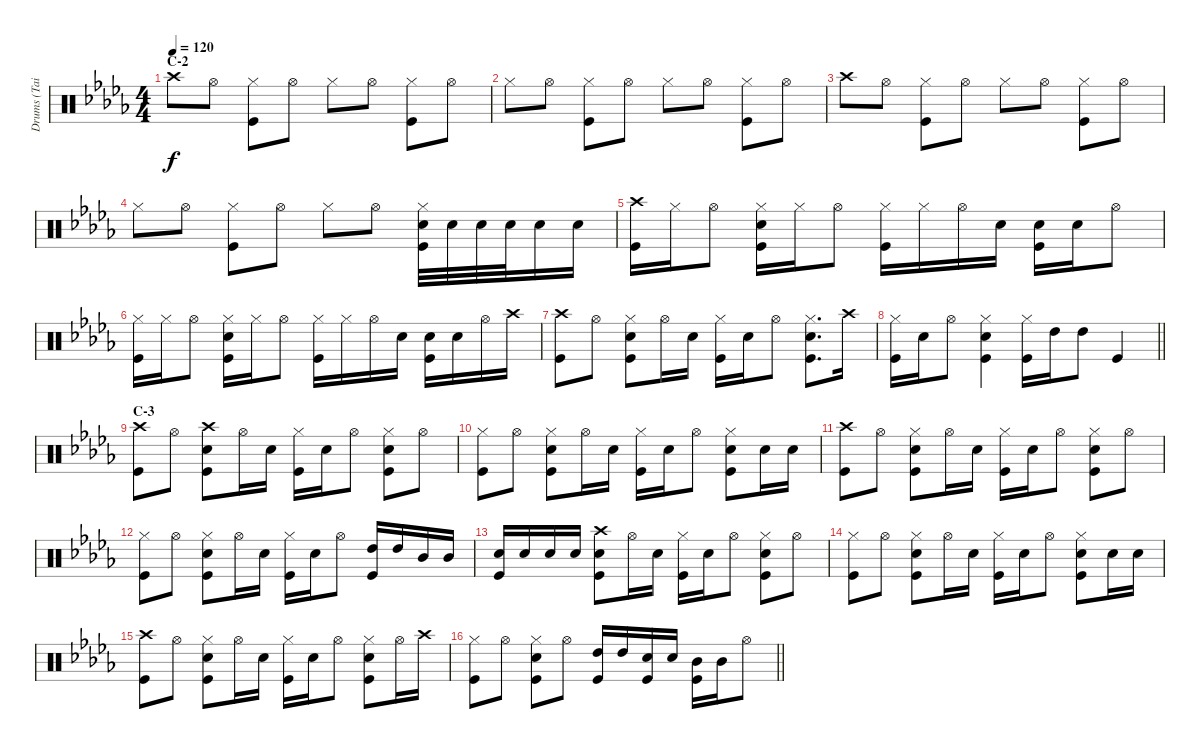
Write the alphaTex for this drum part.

\track ("Drums (Tainaka Ritsu)" "Drums (Tai") {instrument percussion}
\staff {score}
\articulation defaults
\ts (4 4)
\section ("" "C-2")
\tempo 120
\clef neutral
\ks db "Crash high (hit)".8{dy f} "Hi-Hat (open)".8
("Hi-Hat (closed)" "Kick (hit)").8 "Hi-Hat (open)".8 "Hi-Hat (closed)".8 "Hi-Hat (open)".8 ("Hi-Hat (closed)" "Kick (hit)").8 "Hi-Hat (open)".8 |
"Hi-Hat (closed)".8 "Hi-Hat (open)".8 ("Hi-Hat (closed)" "Kick (hit)").8 "Hi-Hat (open)".8 "Hi-Hat (closed)".8 "Hi-Hat (open)".8 ("Hi-Hat (closed)" "Kick (hit)").8 "Hi-Hat (open)".8 |
"Crash high (hit)".8 "Hi-Hat (open)".8 ("Hi-Hat (closed)" "Kick (hit)").8 "Hi-Hat (open)".8 "Hi-Hat (closed)".8 "Hi-Hat (open)".8 ("Hi-Hat (closed)" "Kick (hit)").8 "Hi-Hat (open)".8 |
"Hi-Hat (closed)".8 "Hi-Hat (open)".8 ("Hi-Hat (closed)" "Kick (hit)").8 "Hi-Hat (open)".8 "Hi-Hat (closed)".8 "Hi-Hat (open)".8 ("Hi-Hat (closed)" "Snare (hit) 2" "Kick (hit)").32 "Snare (hit) 2".32 "Snare (hit) 2".32 "Snare (hit) 2".32 "Snare (hit) 2".16 "Snare (hit) 2".16 |
("Crash high (hit)" "Kick (hit)").16 "Hi-Hat (closed)".16 "Hi-Hat (open)".8 ("Hi-Hat (closed)" "Snare (hit) 2" "Kick (hit)").16 "Hi-Hat (closed)".16 "Hi-Hat (open)".8 ("Hi-Hat (closed)" "Kick (hit)").16 "Hi-Hat (closed)".16 "Hi-Hat (open)".16 "Snare (hit) 2".16 ("Snare (hit) 2" "Kick (hit)").16 "Snare (hit) 2".16 "Hi-Hat (open)".8 |
("Hi-Hat (closed)" "Kick (hit)").16 "Hi-Hat (closed)".16 "Hi-Hat (open)".8 ("Hi-Hat (closed)" "Snare (hit) 2" "Kick (hit)").16 "Hi-Hat (closed)".16 "Hi-Hat (open)".8 ("Hi-Hat (closed)" "Kick (hit)").16 "Hi-Hat (closed)".16 "Hi-Hat (open)".16 "Snare (hit) 2".16 ("Snare (hit) 2" "Kick (hit)").16 "Snare (hit) 2".16 "Hi-Hat (open)".16 "Crash high (hit)".16 |
("Crash high (hit)" "Kick (hit)").8 "Hi-Hat (open)".8 ("Hi-Hat (closed)" "Snare (hit) 2" "Kick (hit)").8 "Hi-Hat (open)".16 "Snare (hit) 2".16 ("Hi-Hat (closed)" "Kick (hit)").16 "Snare (hit) 2".16 "Hi-Hat (open)".8 ("Hi-Hat (closed)" "Snare (hit) 2" "Kick (hit)").8{d} "Crash high (hit)".16 |
\barLineRight lightlight
("Hi-Hat (closed)" "Kick (hit)").16 "Snare (hit) 2".16 "Hi-Hat (open)".8 ("Hi-Hat (closed)" "Snare (hit) 2" "Kick (hit)").4 ("Hi-Hat (closed)" "Kick (hit)").16 "High Tom (hit)".16 "High Tom (hit)".8 "Kick (hit)".4 |
\section ("" "C-3")
("Crash high (hit)" "Kick (hit)").8 "Hi-Hat (open)".8 ("Crash high (hit)" "Snare (hit) 2" "Kick (hit)").8 "Hi-Hat (open)".16 "Snare (hit) 2".16 ("Hi-Hat (closed)" "Kick (hit)").16 "Snare (hit) 2".16 "Hi-Hat (open)".8 ("Hi-Hat (closed)" "Snare (hit) 2" "Kick (hit)").8 "Hi-Hat (open)".8 |
("Hi-Hat (closed)" "Kick (hit)").8 "Hi-Hat (open)".8 ("Hi-Hat (closed)" "Snare (hit) 2" "Kick (hit)").8 "Hi-Hat (open)".16 "Snare (hit) 2".16 ("Hi-Hat (closed)" "Kick (hit)").16 "Snare (hit) 2".16 "Hi-Hat (open)".8 ("Hi-Hat (closed)" "Snare (hit) 2" "Kick (hit)").8 "Snare (hit) 2".16 "Snare (hit) 2".16 |
("Crash high (hit)" "Kick (hit)").8 "Hi-Hat (open)".8 ("Hi-Hat (closed)" "Snare (hit) 2" "Kick (hit)").8 "Hi-Hat (open)".16 "Snare (hit) 2".16 ("Hi-Hat (closed)" "Kick (hit)").16 "Snare (hit) 2".16 "Hi-Hat (open)".8 ("Hi-Hat (closed)" "Snare (hit) 2" "Kick (hit)").8 "Hi-Hat (open)".8 |
("Hi-Hat (closed)" "Kick (hit)").8 "Hi-Hat (open)".8 ("Hi-Hat (closed)" "Snare (hit) 2" "Kick (hit)").8 "Hi-Hat (open)".16 "Snare (hit) 2".16 ("Hi-Hat (closed)" "Kick (hit)").16 "Snare (hit) 2".16 "Hi-Hat (open)".8 ("High Tom (hit)" "Kick (hit)").16 "High Tom (hit)".16 "Mid Tom (hit)".16 "Mid Tom (hit)".16 |
("Snare (hit) 2" "Kick (hit)").16 "Snare (hit) 2".16 "Snare (hit) 2".16 "Snare (hit) 2".16 ("Crash high (hit)" "Snare (hit) 2" "Kick (hit)").8 "Hi-Hat (open)".16 "Snare (hit) 2".16 ("Hi-Hat (closed)" "Kick (hit)").16 "Snare (hit) 2".16 "Hi-Hat (open)".8 ("Hi-Hat (closed)" "Snare (hit) 2" "Kick (hit)").8 "Hi-Hat (open)".8 |
("Hi-Hat (closed)" "Kick (hit)").8 "Hi-Hat (open)".8 ("Hi-Hat (closed)" "Snare (hit) 2" "Kick (hit)").8 "Hi-Hat (open)".16 "Snare (hit) 2".16 ("Hi-Hat (closed)" "Kick (hit)").16 "Snare (hit) 2".16 "Hi-Hat (open)".8 ("Hi-Hat (closed)" "Snare (hit) 2" "Kick (hit)").8 "Snare (hit) 2".16 "Snare (hit) 2".16 |
("Crash high (hit)" "Kick (hit)").8 "Hi-Hat (open)".8 ("Hi-Hat (closed)" "Snare (hit) 2" "Kick (hit)").8 "Hi-Hat (open)".16 "Snare (hit) 2".16 ("Hi-Hat (closed)" "Kick (hit)").16 "Snare (hit) 2".16 "Hi-Hat (open)".8 ("Hi-Hat (closed)" "Snare (hit) 2" "Kick (hit)").8 "Hi-Hat (open)".16 "Crash high (hit)".16 |
\barLineRight lightlight
("Hi-Hat (closed)" "Kick (hit)").8 "Hi-Hat (open)".8 ("Hi-Hat (closed)" "Snare (hit) 2" "Kick (hit)").8 "Hi-Hat (open)".8 ("High Tom (hit)" "Kick (hit)").16 "High Tom (hit)".16 ("Snare (hit) 2" "Kick (hit)").16 "Snare (hit) 2".16 ("Mid Tom (hit)" "Kick (hit)").16 "Mid Tom (hit)".16 "Hi-Hat (open)".8
